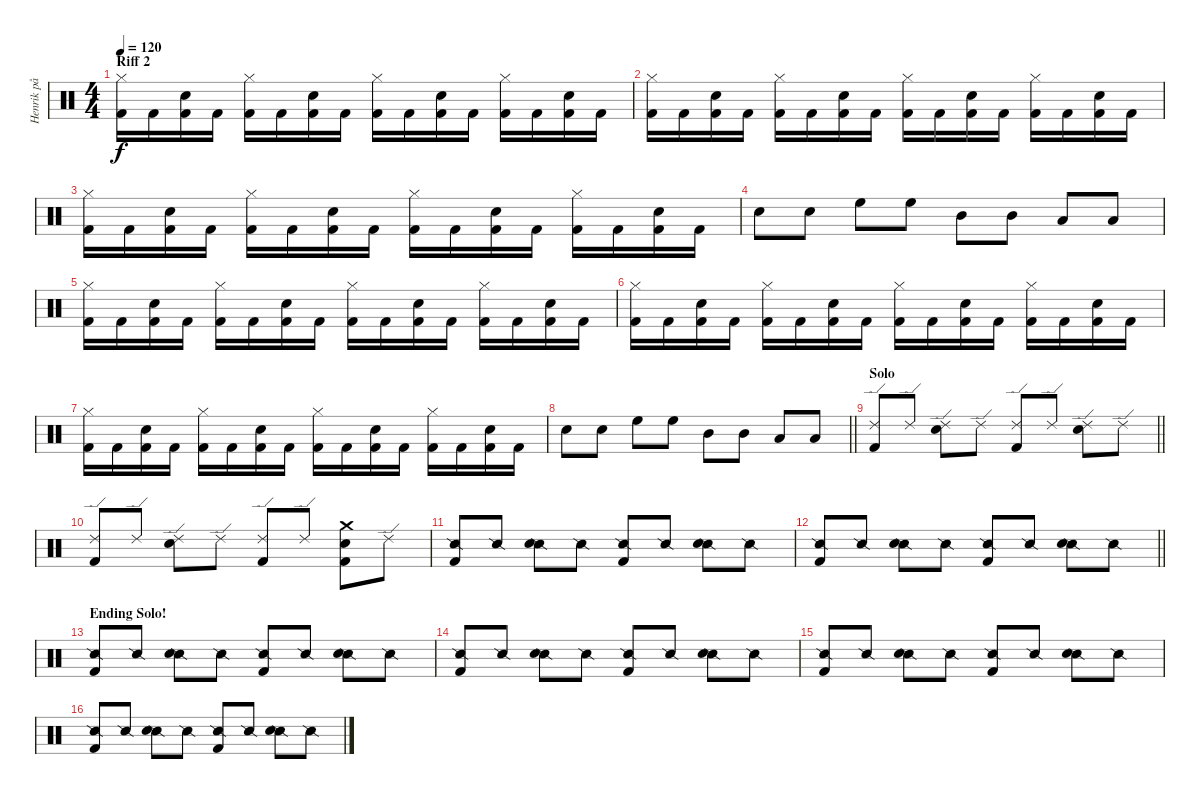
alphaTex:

\track ("Henrik på trommer" "Henrik på ") {instrument percussion}
\staff {score}
\articulation defaults
\ts (4 4)
\section ("" "Riff 2")
\tempo 120
\clef neutral
\ks c
("Hi-Hat (closed)" "Kick (hit) 2").16{dy f} "Kick (hit) 2".16 ("Electric Snare (hit)" "Kick (hit) 2").16 "Kick (hit) 2".16 ("Hi-Hat (closed)" "Kick (hit) 2").16 "Kick (hit) 2".16 ("Electric Snare (hit)" "Kick (hit) 2").16 "Kick (hit) 2".16 ("Hi-Hat (closed)" "Kick (hit) 2").16 "Kick (hit) 2".16 ("Electric Snare (hit)" "Kick (hit) 2").16 "Kick (hit) 2".16 ("Hi-Hat (closed)" "Kick (hit) 2").16 "Kick (hit) 2".16 ("Electric Snare (hit)" "Kick (hit) 2").16 "Kick (hit) 2".16 |
("Hi-Hat (closed)" "Kick (hit) 2").16 "Kick (hit) 2".16 ("Electric Snare (hit)" "Kick (hit) 2").16 "Kick (hit) 2".16 ("Hi-Hat (closed)" "Kick (hit) 2").16 "Kick (hit) 2".16 ("Electric Snare (hit)" "Kick (hit) 2").16 "Kick (hit) 2".16 ("Hi-Hat (closed)" "Kick (hit) 2").16 "Kick (hit) 2".16 ("Electric Snare (hit)" "Kick (hit) 2").16 "Kick (hit) 2".16 ("Hi-Hat (closed)" "Kick (hit) 2").16 "Kick (hit) 2".16 ("Electric Snare (hit)" "Kick (hit) 2").16 "Kick (hit) 2".16 |
("Hi-Hat (closed)" "Kick (hit) 2").16 "Kick (hit) 2".16 ("Electric Snare (hit)" "Kick (hit) 2").16 "Kick (hit) 2".16 ("Hi-Hat (closed)" "Kick (hit) 2").16 "Kick (hit) 2".16 ("Electric Snare (hit)" "Kick (hit) 2").16 "Kick (hit) 2".16 ("Hi-Hat (closed)" "Kick (hit) 2").16 "Kick (hit) 2".16 ("Electric Snare (hit)" "Kick (hit) 2").16 "Kick (hit) 2".16 ("Hi-Hat (closed)" "Kick (hit) 2").16 "Kick (hit) 2".16 ("Electric Snare (hit)" "Kick (hit) 2").16 "Kick (hit) 2".16 |
"Electric Snare (hit)".8 "Electric Snare (hit)".8 "High Floor Tom (hit)".8 "High Floor Tom (hit)".8 "Mid Tom (hit)".8 "Mid Tom (hit)".8 "Low Tom (hit)".8 "Low Tom (hit)".8 |
("Hi-Hat (closed)" "Kick (hit) 2").16 "Kick (hit) 2".16 ("Electric Snare (hit)" "Kick (hit) 2").16 "Kick (hit) 2".16 ("Hi-Hat (closed)" "Kick (hit) 2").16 "Kick (hit) 2".16 ("Electric Snare (hit)" "Kick (hit) 2").16 "Kick (hit) 2".16 ("Hi-Hat (closed)" "Kick (hit) 2").16 "Kick (hit) 2".16 ("Electric Snare (hit)" "Kick (hit) 2").16 "Kick (hit) 2".16 ("Hi-Hat (closed)" "Kick (hit) 2").16 "Kick (hit) 2".16 ("Electric Snare (hit)" "Kick (hit) 2").16 "Kick (hit) 2".16 |
("Hi-Hat (closed)" "Kick (hit) 2").16 "Kick (hit) 2".16 ("Electric Snare (hit)" "Kick (hit) 2").16 "Kick (hit) 2".16 ("Hi-Hat (closed)" "Kick (hit) 2").16 "Kick (hit) 2".16 ("Electric Snare (hit)" "Kick (hit) 2").16 "Kick (hit) 2".16 ("Hi-Hat (closed)" "Kick (hit) 2").16 "Kick (hit) 2".16 ("Electric Snare (hit)" "Kick (hit) 2").16 "Kick (hit) 2".16 ("Hi-Hat (closed)" "Kick (hit) 2").16 "Kick (hit) 2".16 ("Electric Snare (hit)" "Kick (hit) 2").16 "Kick (hit) 2".16 |
("Hi-Hat (closed)" "Kick (hit) 2").16 "Kick (hit) 2".16 ("Electric Snare (hit)" "Kick (hit) 2").16 "Kick (hit) 2".16 ("Hi-Hat (closed)" "Kick (hit) 2").16 "Kick (hit) 2".16 ("Electric Snare (hit)" "Kick (hit) 2").16 "Kick (hit) 2".16 ("Hi-Hat (closed)" "Kick (hit) 2").16 "Kick (hit) 2".16 ("Electric Snare (hit)" "Kick (hit) 2").16 "Kick (hit) 2".16 ("Hi-Hat (closed)" "Kick (hit) 2").16 "Kick (hit) 2".16 ("Electric Snare (hit)" "Kick (hit) 2").16 "Kick (hit) 2".16 |
\barLineRight lightlight "Electric Snare (hit)".8 "Electric Snare (hit)".8 "High Floor Tom (hit)".8 "High Floor Tom (hit)".8 "Mid Tom (hit)".8 "Mid Tom (hit)".8 "Low Tom (hit)".8 "Low Tom (hit)".8
|
\section ("" "Solo")
\barLineRight lightlight
("Ride (edge) 2" "Kick (hit) 2").8 "Ride (edge) 2".8 ("Ride (edge) 2" "Electric Snare (hit)").8 "Ride (edge) 2".8 ("Ride (edge) 2" "Kick (hit) 2").8 "Ride (edge) 2".8 ("Ride (edge) 2" "Electric Snare (hit)").8 "Ride (edge) 2".8 |
("Ride (edge) 2" "Kick (hit) 2").8 "Ride (edge) 2".8 ("Ride (edge) 2" "Electric Snare (hit)").8 "Ride (edge) 2".8 ("Ride (edge) 2" "Kick (hit) 2").8 "Ride (edge) 2".8 ("Crash medium (hit)" "Electric Snare (hit)" "Kick (hit) 2").8 "Ride (edge) 2".8 |
("Snare (side stick) 2" "Kick (hit) 2").8 "Snare (side stick) 2".8 ("Snare (side stick) 2" "Electric Snare (hit)").8 "Snare (side stick) 2".8 ("Snare (side stick) 2" "Kick (hit) 2").8 "Snare (side stick) 2".8 ("Snare (side stick) 2" "Electric Snare (hit)").8 "Snare (side stick) 2".8 |
\barLineRight lightlight
("Snare (side stick) 2" "Kick (hit) 2").8 "Snare (side stick) 2".8 ("Snare (side stick) 2" "Electric Snare (hit)").8 "Snare (side stick) 2".8 ("Snare (side stick) 2" "Kick (hit) 2").8 "Snare (side stick) 2".8 ("Snare (side stick) 2" "Electric Snare (hit)").8 "Snare (side stick) 2".8 |
\section ("" "Ending Solo!")
("Snare (side stick) 2" "Kick (hit) 2").8 "Snare (side stick) 2".8 ("Snare (side stick) 2" "Electric Snare (hit)").8 "Snare (side stick) 2".8 ("Snare (side stick) 2" "Kick (hit) 2").8 "Snare (side stick) 2".8 ("Snare (side stick) 2" "Electric Snare (hit)").8 "Snare (side stick) 2".8 |
("Snare (side stick) 2" "Kick (hit) 2").8 "Snare (side stick) 2".8 ("Snare (side stick) 2" "Electric Snare (hit)").8 "Snare (side stick) 2".8 ("Snare (side stick) 2" "Kick (hit) 2").8 "Snare (side stick) 2".8 ("Snare (side stick) 2" "Electric Snare (hit)").8 "Snare (side stick) 2".8 |
("Snare (side stick) 2" "Kick (hit) 2").8 "Snare (side stick) 2".8 ("Snare (side stick) 2" "Electric Snare (hit)").8 "Snare (side stick) 2".8 ("Snare (side stick) 2" "Kick (hit) 2").8 "Snare (side stick) 2".8 ("Snare (side stick) 2" "Electric Snare (hit)").8 "Snare (side stick) 2".8 |
("Snare (side stick) 2" "Kick (hit) 2").8 "Snare (side stick) 2".8 ("Snare (side stick) 2" "Electric Snare (hit)").8 "Snare (side stick) 2".8 ("Snare (side stick) 2" "Kick (hit) 2").8 "Snare (side stick) 2".8 ("Snare (side stick) 2" "Electric Snare (hit)").8 "Snare (side stick) 2".8
